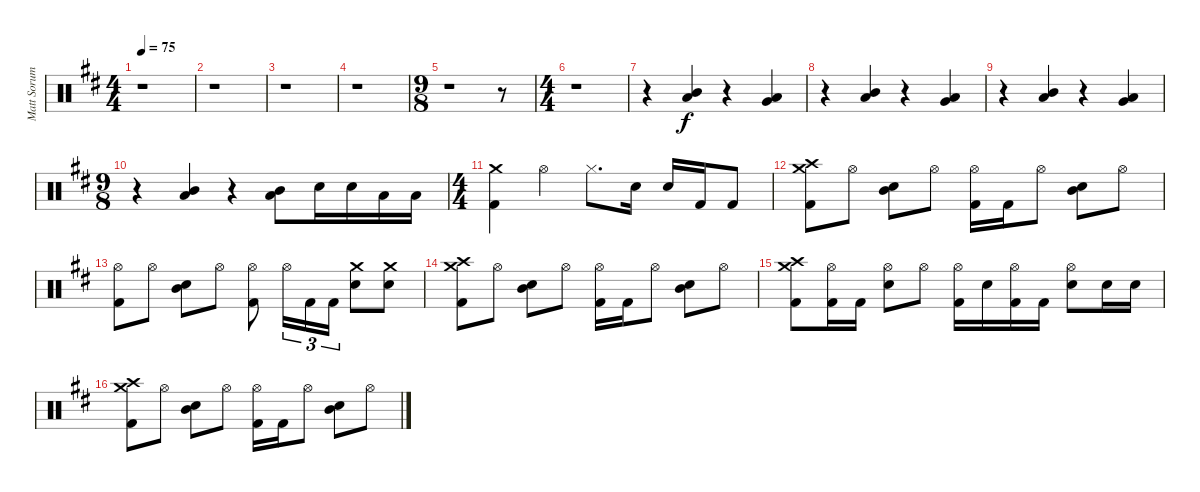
\track ("Matt Sorum- Drums" "Matt Sorum") {instrument percussion}
\staff {score}
\articulation defaults
\ts (4 4)
\tempo 75
\clef neutral
\ks d
r.1{dy f} |
r.1 |
r.1 |
r.1 |
\ts (9 8)
r.1 r.8 |
\ts (4 4)
r.1 |
r.4 ("Mid Tom (hit)" "Low Tom (hit)").4 r.4 ("Low Tom (hit)" "Very Low Tom (hit)").4 |
r.4 ("Mid Tom (hit)" "Low Tom (hit)").4 r.4 ("Low Tom (hit)" "Very Low Tom (hit)").4 |
r.4 ("Mid Tom (hit)" "Low Tom (hit)").4 r.4 ("Low Tom (hit)" "Very Low Tom (hit)").4 |
\ts (9 8)
r.4 ("Mid Tom (hit)" "Low Tom (hit)").4 r.4 ("Mid Tom (hit)" "Low Tom (hit)").8 "Snare (hit) 2".16 "Snare (hit) 2".16 "Low Tom (hit)".16 "Low Tom (hit)".16 |
\ts (4 4)
("Crash medium (hit)" "Kick (hit) 2").4 "Hi-Hat (open)".4 "Hi-Hat (closed)".8{d} "Snare (hit) 2".16 "Snare (hit) 2".16 "Kick (hit) 2".16 "Kick (hit) 2".8 |
("Crash medium (hit)" "Crash high (hit)" "Kick (hit) 2").8 "Hi-Hat (open)".8 ("Mid Tom (hit)" "Snare (hit) 2").8 "Hi-Hat (open)".8 ("Hi-Hat (open)" "Kick (hit) 2").16 "Kick (hit) 2".16 "Hi-Hat (open)".8 ("Mid Tom (hit)" "Snare (hit) 2").8 "Hi-Hat (open)".8 |
("Hi-Hat (open)" "Kick (hit) 2").8 "Hi-Hat (open)".8 ("Mid Tom (hit)" "Snare (hit) 2").8 "Hi-Hat (open)".8 ("Hi-Hat (open)" "Kick (hit) 2").8 "Hi-Hat (open)".16{tu (3 2)} "Kick (hit) 2".16{tu (3 2)} "Kick (hit) 2".16{tu (3 2)} ("Crash medium (hit)" "Snare (hit) 2").8 ("Crash medium (hit)" "Snare (hit) 2").8 |
("Crash medium (hit)" "Crash high (hit)" "Kick (hit) 2").8 "Hi-Hat (open)".8 ("Mid Tom (hit)" "Snare (hit) 2").8 "Hi-Hat (open)".8 ("Hi-Hat (open)" "Kick (hit) 2").16 "Kick (hit) 2".16 "Hi-Hat (open)".8 ("Mid Tom (hit)" "Snare (hit) 2").8 "Hi-Hat (open)".8 |
("Crash medium (hit)" "Crash high (hit)" "Kick (hit) 2").8 ("Hi-Hat (open)" "Kick (hit) 2").16 "Kick (hit) 2".16 ("Hi-Hat (open)" "Snare (hit) 2").8 "Hi-Hat (open)".8 ("Hi-Hat (open)" "Kick (hit) 2").16 "Snare (hit) 2".16 ("Hi-Hat (open)" "Kick (hit) 2").16 "Kick (hit) 2".16 ("Hi-Hat (open)" "Snare (hit) 2").8 "Snare (hit) 2".16 "Snare (hit) 2".16 |
("Crash medium (hit)" "Crash high (hit)" "Kick (hit) 2").8 "Hi-Hat (open)".8 ("Mid Tom (hit)" "Snare (hit) 2").8 "Hi-Hat (open)".8 ("Hi-Hat (open)" "Kick (hit) 2").16 "Kick (hit) 2".16 "Hi-Hat (open)".8 ("Mid Tom (hit)" "Snare (hit) 2").8 "Hi-Hat (open)".8
